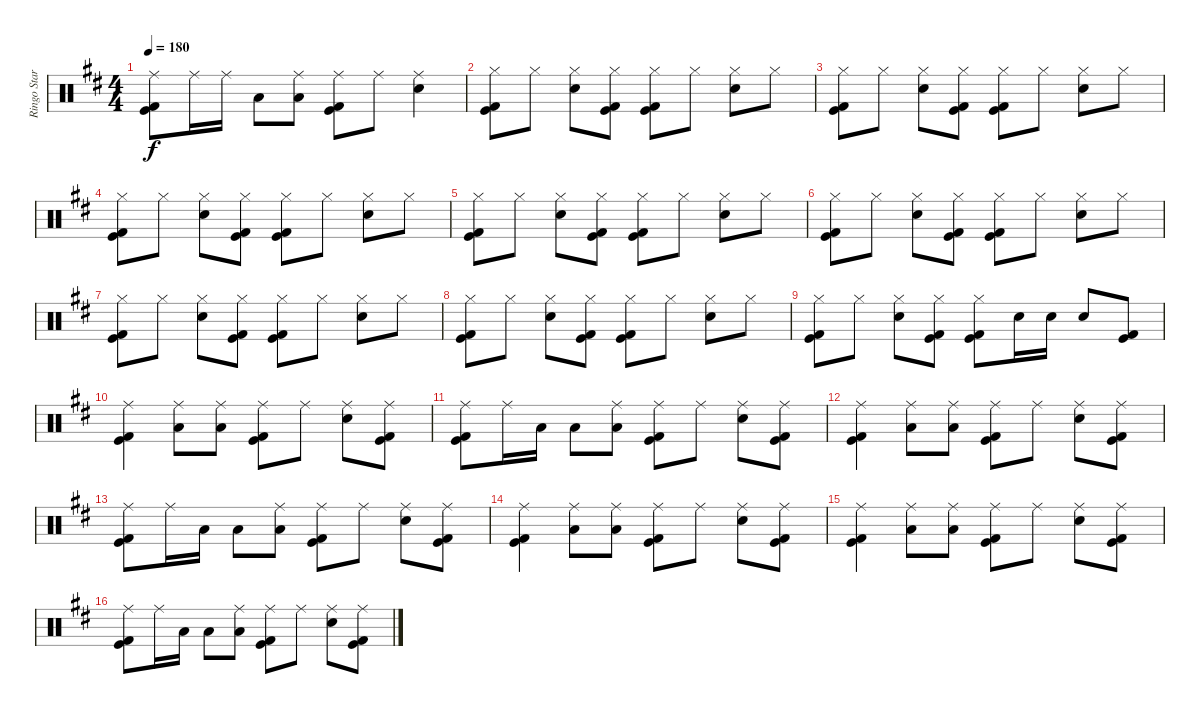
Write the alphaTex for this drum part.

\track ("Ringo Starr" "Ringo Star") {instrument percussion}
\staff {score}
\articulation defaults
\ts (4 4)
\tempo 180
\clef neutral
\ks d
("Ride (middle)" "Kick (hit) 2" "Kick (hit)").8{dy f} "Ride (middle)".16 "Ride (middle)".16 "Low Tom (hit)".8 ("Ride (middle)" "Low Tom (hit)").8 ("Ride (middle)" "Kick (hit) 2" "Kick (hit)").8 "Ride (middle)".8 ("Ride (middle)" "Electric Snare (hit)").4 |
("Hi-Hat (closed)" "Kick (hit) 2" "Kick (hit)").8 "Hi-Hat (closed)".8 ("Hi-Hat (closed)" "Electric Snare (hit)").8 ("Hi-Hat (closed)" "Kick (hit) 2" "Kick (hit)").8 ("Hi-Hat (closed)" "Kick (hit) 2" "Kick (hit)").8 "Hi-Hat (closed)".8 ("Hi-Hat (closed)" "Electric Snare (hit)").8 "Hi-Hat (closed)".8 |
("Hi-Hat (closed)" "Kick (hit) 2" "Kick (hit)").8 "Hi-Hat (closed)".8 ("Hi-Hat (closed)" "Electric Snare (hit)").8 ("Hi-Hat (closed)" "Kick (hit) 2" "Kick (hit)").8 ("Hi-Hat (closed)" "Kick (hit) 2" "Kick (hit)").8 "Hi-Hat (closed)".8 ("Hi-Hat (closed)" "Electric Snare (hit)").8 "Hi-Hat (closed)".8 |
("Hi-Hat (closed)" "Kick (hit) 2" "Kick (hit)").8 "Hi-Hat (closed)".8 ("Hi-Hat (closed)" "Electric Snare (hit)").8 ("Hi-Hat (closed)" "Kick (hit) 2" "Kick (hit)").8 ("Hi-Hat (closed)" "Kick (hit) 2" "Kick (hit)").8 "Hi-Hat (closed)".8 ("Hi-Hat (closed)" "Electric Snare (hit)").8 "Hi-Hat (closed)".8 |
("Hi-Hat (closed)" "Kick (hit) 2" "Kick (hit)").8 "Hi-Hat (closed)".8 ("Hi-Hat (closed)" "Electric Snare (hit)").8 ("Hi-Hat (closed)" "Kick (hit) 2" "Kick (hit)").8 ("Hi-Hat (closed)" "Kick (hit) 2" "Kick (hit)").8 "Hi-Hat (closed)".8 ("Hi-Hat (closed)" "Electric Snare (hit)").8 "Hi-Hat (closed)".8 |
("Hi-Hat (closed)" "Kick (hit) 2" "Kick (hit)").8 "Hi-Hat (closed)".8 ("Hi-Hat (closed)" "Electric Snare (hit)").8 ("Hi-Hat (closed)" "Kick (hit) 2" "Kick (hit)").8 ("Hi-Hat (closed)" "Kick (hit) 2" "Kick (hit)").8 "Hi-Hat (closed)".8 ("Hi-Hat (closed)" "Electric Snare (hit)").8 "Hi-Hat (closed)".8 |
("Hi-Hat (closed)" "Kick (hit) 2" "Kick (hit)").8 "Hi-Hat (closed)".8 ("Hi-Hat (closed)" "Electric Snare (hit)").8 ("Hi-Hat (closed)" "Kick (hit) 2" "Kick (hit)").8 ("Hi-Hat (closed)" "Kick (hit) 2" "Kick (hit)").8 "Hi-Hat (closed)".8 ("Hi-Hat (closed)" "Electric Snare (hit)").8 "Hi-Hat (closed)".8 |
("Hi-Hat (closed)" "Kick (hit) 2" "Kick (hit)").8 "Hi-Hat (closed)".8 ("Hi-Hat (closed)" "Electric Snare (hit)").8 ("Hi-Hat (closed)" "Kick (hit) 2" "Kick (hit)").8 ("Hi-Hat (closed)" "Kick (hit) 2" "Kick (hit)").8 "Hi-Hat (closed)".8 ("Hi-Hat (closed)" "Electric Snare (hit)").8 "Hi-Hat (closed)".8 |
("Hi-Hat (closed)" "Kick (hit) 2" "Kick (hit)").8 "Hi-Hat (closed)".8 ("Hi-Hat (closed)" "Electric Snare (hit)").8 ("Hi-Hat (closed)" "Kick (hit) 2" "Kick (hit)").8 ("Hi-Hat (closed)" "Kick (hit) 2" "Kick (hit)").8 "Electric Snare (hit)".16 "Electric Snare (hit)".16 "Electric Snare (hit)".8 ("Kick (hit) 2" "Kick (hit)").8 |
("Ride (middle)" "Kick (hit) 2" "Kick (hit)").4 ("Ride (middle)" "Low Tom (hit)").8 ("Ride (middle)" "Low Tom (hit)").8 ("Ride (middle)" "Kick (hit) 2" "Kick (hit)").8 "Ride (middle)".8 ("Ride (middle)" "Electric Snare (hit)").8 ("Ride (middle)" "Kick (hit) 2" "Kick (hit)").8 |
("Ride (middle)" "Kick (hit) 2" "Kick (hit)").8 "Ride (middle)".16 "Low Tom (hit)".16 "Low Tom (hit)".8 ("Ride (middle)" "Low Tom (hit)").8 ("Ride (middle)" "Kick (hit) 2" "Kick (hit)").8 "Ride (middle)".8 ("Ride (middle)" "Electric Snare (hit)").8 ("Ride (middle)" "Kick (hit) 2" "Kick (hit)").8 |
("Ride (middle)" "Kick (hit) 2" "Kick (hit)").4 ("Ride (middle)" "Low Tom (hit)").8 ("Ride (middle)" "Low Tom (hit)").8 ("Ride (middle)" "Kick (hit) 2" "Kick (hit)").8 "Ride (middle)".8 ("Ride (middle)" "Electric Snare (hit)").8 ("Ride (middle)" "Kick (hit) 2" "Kick (hit)").8 |
("Ride (middle)" "Kick (hit) 2" "Kick (hit)").8 "Ride (middle)".16 "Low Tom (hit)".16 "Low Tom (hit)".8 ("Ride (middle)" "Low Tom (hit)").8 ("Ride (middle)" "Kick (hit) 2" "Kick (hit)").8 "Ride (middle)".8 ("Ride (middle)" "Electric Snare (hit)").8 ("Ride (middle)" "Kick (hit) 2" "Kick (hit)").8 |
("Ride (middle)" "Kick (hit) 2" "Kick (hit)").4 ("Ride (middle)" "Low Tom (hit)").8 ("Ride (middle)" "Low Tom (hit)").8 ("Ride (middle)" "Kick (hit) 2" "Kick (hit)").8 "Ride (middle)".8 ("Ride (middle)" "Electric Snare (hit)").8 ("Ride (middle)" "Kick (hit) 2" "Kick (hit)").8 |
("Ride (middle)" "Kick (hit) 2" "Kick (hit)").4 ("Ride (middle)" "Low Tom (hit)").8 ("Ride (middle)" "Low Tom (hit)").8 ("Ride (middle)" "Kick (hit) 2" "Kick (hit)").8 "Ride (middle)".8 ("Ride (middle)" "Electric Snare (hit)").8 ("Ride (middle)" "Kick (hit) 2" "Kick (hit)").8 |
("Ride (middle)" "Kick (hit) 2" "Kick (hit)").8 "Ride (middle)".16 "Low Tom (hit)".16 "Low Tom (hit)".8 ("Ride (middle)" "Low Tom (hit)").8 ("Ride (middle)" "Kick (hit) 2" "Kick (hit)").8 "Ride (middle)".8 ("Ride (middle)" "Electric Snare (hit)").8 ("Ride (middle)" "Kick (hit) 2" "Kick (hit)").8
